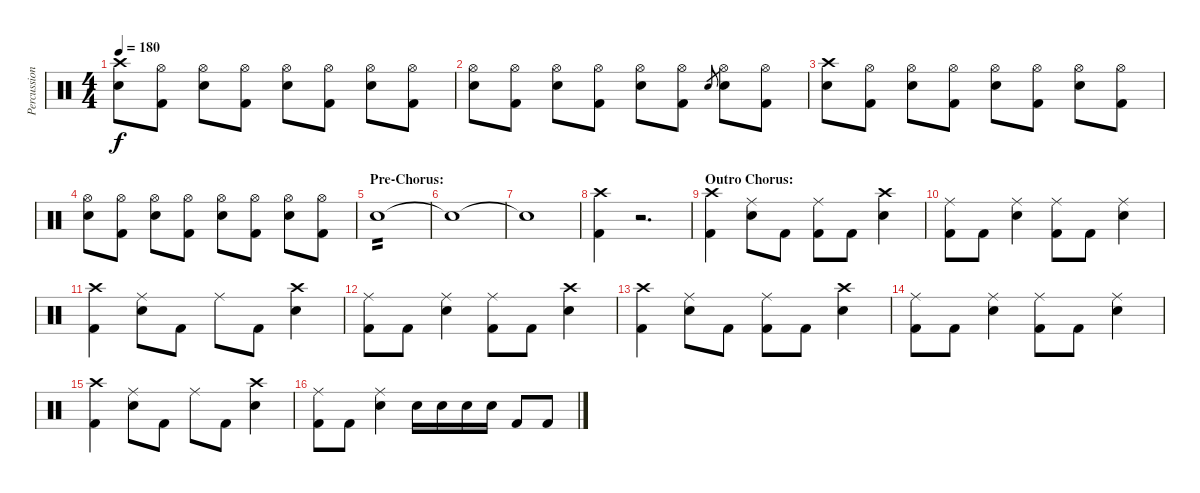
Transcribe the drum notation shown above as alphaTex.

\track ("Percussion" "Percussion") {instrument percussion}
\staff {score}
\articulation defaults
\ts (4 4)
\tempo 180
\clef neutral
\ks c
("Crash high (hit)" "Snare (hit) 2").8{dy f} ("Hi-Hat (open)" "Kick (hit) 2").8 ("Hi-Hat (open)" "Snare (hit) 2").8 ("Hi-Hat (open)" "Kick (hit) 2").8 ("Hi-Hat (open)" "Snare (hit) 2").8 ("Hi-Hat (open)" "Kick (hit) 2").8 ("Hi-Hat (open)" "Snare (hit) 2").8 ("Hi-Hat (open)" "Kick (hit) 2").8 |
("Hi-Hat (open)" "Snare (hit) 2").8 ("Hi-Hat (open)" "Kick (hit) 2").8 ("Hi-Hat (open)" "Snare (hit) 2").8 ("Hi-Hat (open)" "Kick (hit) 2").8 ("Hi-Hat (open)" "Snare (hit) 2").8 ("Hi-Hat (open)" "Kick (hit) 2").8 "Snare (hit) 2".8{gr} ("Hi-Hat (open)" "Snare (hit) 2").8 ("Hi-Hat (open)" "Kick (hit) 2").8 |
("Crash high (hit)" "Snare (hit) 2").8 ("Hi-Hat (open)" "Kick (hit) 2").8 ("Hi-Hat (open)" "Snare (hit) 2").8 ("Hi-Hat (open)" "Kick (hit) 2").8 ("Hi-Hat (open)" "Snare (hit) 2").8 ("Hi-Hat (open)" "Kick (hit) 2").8 ("Hi-Hat (open)" "Snare (hit) 2").8 ("Hi-Hat (open)" "Kick (hit) 2").8 |
("Hi-Hat (open)" "Snare (hit) 2").8 ("Hi-Hat (open)" "Kick (hit) 2").8 ("Hi-Hat (open)" "Snare (hit) 2").8 ("Hi-Hat (open)" "Kick (hit) 2").8 ("Hi-Hat (open)" "Snare (hit) 2").8 ("Hi-Hat (open)" "Kick (hit) 2").8 ("Hi-Hat (open)" "Snare (hit) 2").8 ("Hi-Hat (open)" "Kick (hit) 2").8 |
\section ("" "Pre-Chorus:")
"Snare (hit) 2".1{tp 2} |
"Snare (hit)"{t}.1 |
"Snare (hit)"{t}.1 |
("Crash high (hit)" "Kick (hit) 2").4 r.2{d} |
\section ("" "Outro Chorus:")
("Crash high (hit)" "Kick (hit) 2").4 ("Ride (middle)" "Snare (hit) 2").8 "Kick (hit) 2".8 ("Ride (middle)" "Kick (hit) 2").8 "Kick (hit) 2".8 ("Crash high (hit)" "Snare (hit) 2").4 |
("Ride (middle)" "Kick (hit) 2").8 "Kick (hit) 2".8 ("Ride (middle)" "Snare (hit) 2").4 ("Ride (middle)" "Kick (hit) 2").8 "Kick (hit) 2".8 ("Ride (middle)" "Snare (hit) 2").4 |
("Crash high (hit)" "Kick (hit) 2").4 ("Ride (middle)" "Snare (hit) 2").8 "Kick (hit) 2".8 "Ride (middle)".8 "Kick (hit) 2".8 ("Crash high (hit)" "Snare (hit) 2").4 |
("Ride (middle)" "Kick (hit) 2").8 "Kick (hit) 2".8 ("Ride (middle)" "Snare (hit) 2").4 ("Ride (middle)" "Kick (hit) 2").8 "Kick (hit) 2".8 ("Crash high (hit)" "Snare (hit) 2").4 |
("Crash high (hit)" "Kick (hit) 2").4 ("Ride (middle)" "Snare (hit) 2").8 "Kick (hit) 2".8 ("Ride (middle)" "Kick (hit) 2").8 "Kick (hit) 2".8 ("Crash high (hit)" "Snare (hit) 2").4 |
("Ride (middle)" "Kick (hit) 2").8 "Kick (hit) 2".8 ("Ride (middle)" "Snare (hit) 2").4 ("Ride (middle)" "Kick (hit) 2").8 "Kick (hit) 2".8 ("Ride (middle)" "Snare (hit) 2").4 |
("Crash high (hit)" "Kick (hit) 2").4 ("Ride (middle)" "Snare (hit) 2").8 "Kick (hit) 2".8 "Ride (middle)".8 "Kick (hit) 2".8 ("Crash high (hit)" "Snare (hit) 2").4 |
("Ride (middle)" "Kick (hit) 2").8 "Kick (hit) 2".8 ("Ride (middle)" "Snare (hit) 2").4 "Snare (hit) 2".16 "Snare (hit) 2".16 "Snare (hit) 2".16 "Snare (hit) 2".16 "Kick (hit) 2".8 "Kick (hit) 2".8
